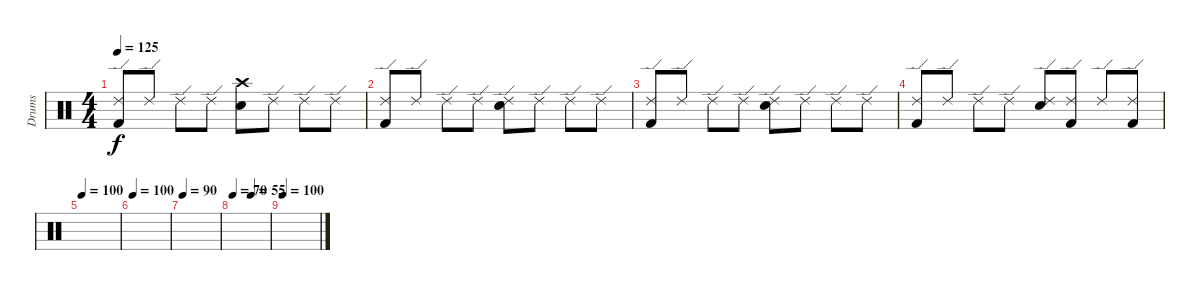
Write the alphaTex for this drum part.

\track ("Drums" "Drums") {instrument percussion}
\staff {score}
\articulation defaults
\ts (4 4)
\tempo 125
\clef neutral
\ks c
("Ride (edge) 2" "Kick (hit) 2").8{dy f volume 10} "Ride (edge) 2".8 "Ride (edge) 2".8 "Ride (edge) 2".8 ("Crash high (hit)" "Electric Snare (hit)").8 "Ride (edge) 2".8 "Ride (edge) 2".8 "Ride (edge) 2".8 |
("Ride (edge) 2" "Kick (hit) 2").8{volume 8} "Ride (edge) 2".8 "Ride (edge) 2".8 "Ride (edge) 2".8 ("Ride (edge) 2" "Electric Snare (hit)").8 "Ride (edge) 2".8 "Ride (edge) 2".8 "Ride (edge) 2".8 |
("Ride (edge) 2" "Kick (hit) 2").8{volume 6} "Ride (edge) 2".8 "Ride (edge) 2".8 "Ride (edge) 2".8 ("Ride (edge) 2" "Electric Snare (hit)").8 "Ride (edge) 2".8 "Ride (edge) 2".8 "Ride (edge) 2".8 |
("Ride (edge) 2" "Kick (hit) 2").8{volume 4} "Ride (edge) 2".8 "Ride (edge) 2".8 "Ride (edge) 2".8 ("Ride (edge) 2" "Electric Snare (hit)").8 ("Ride (edge) 2" "Kick (hit) 2").8 "Ride (edge) 2".8 ("Ride (edge) 2" "Kick (hit) 2").8 |
\tempo 115
\tempo 100
|
\tempo 115
\tempo 100
|
\tempo 100
\tempo 90
|
\tempo 80
\tempo 75
\tempo 70
\tempo (55 0.5)
|
\tempo 100
